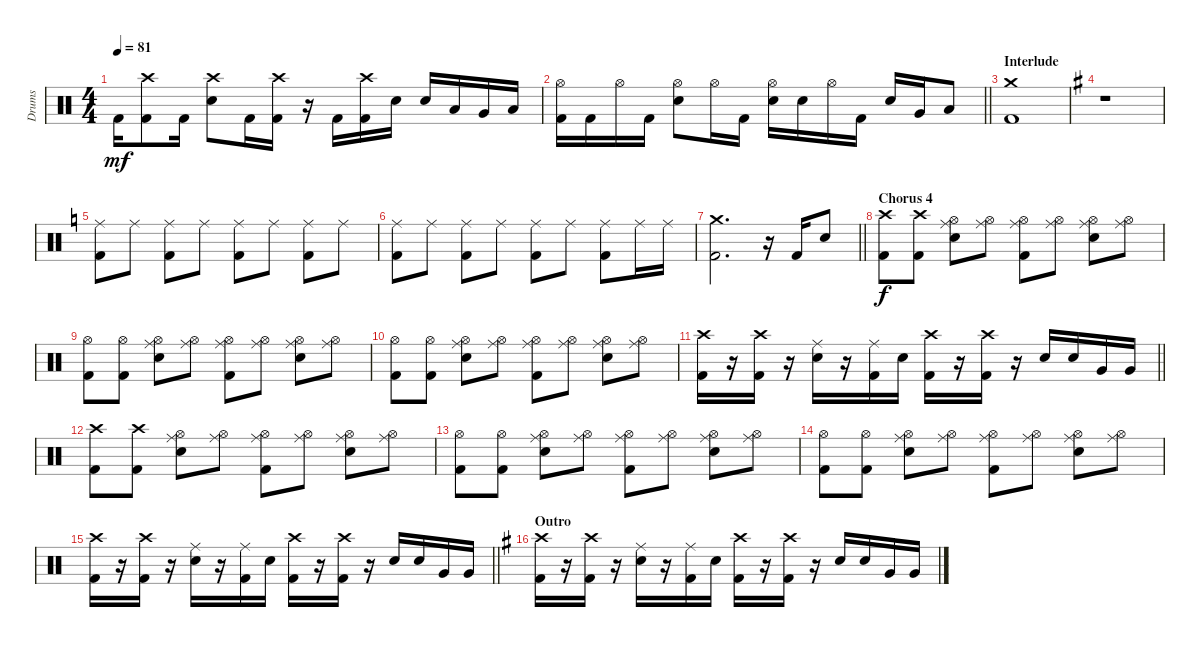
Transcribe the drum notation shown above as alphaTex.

\track ("Drums" "Drums") {instrument percussion}
\staff {score}
\articulation defaults
\ts (4 4)
\tempo 81
\clef neutral
\ks c "Kick (hit) 2".16{dy mf}
("Crash high (hit)" "Kick (hit) 2").8 "Kick (hit) 2".16 ("Crash high (hit)" "Snare (hit) 2").8 "Kick (hit) 2".16 ("Crash high (hit)" "Kick (hit) 2").16 r.16 "Kick (hit) 2".16 ("Crash high (hit)" "Kick (hit) 2").16 "Snare (hit) 2".16 "Snare (hit) 2".16 "Low Tom (hit)".16 "Very Low Tom (hit)".16 "Low Floor Tom (hit)".16 |
\barLineRight lightlight
("Hi-Hat (open)" "Kick (hit) 2").16 "Kick (hit) 2".16 "Hi-Hat (open)".16 "Kick (hit) 2".16 ("Hi-Hat (open)" "Snare (hit) 2").8 "Hi-Hat (open)".16 "Kick (hit) 2".16 ("Hi-Hat (open)" "Snare (hit) 2").16 "Snare (hit) 2".16 "Hi-Hat (open)".16 "Kick (hit) 2".16 "Snare (hit) 2".16 "Very Low Tom (hit)".16 "Low Floor Tom (hit)".8 |
\section ("" "Interlude")
("Crash medium (hit)" "Kick (hit) 2").1 |
\ks g
r.1 |
\ks c
("Ride (middle)" "Kick (hit) 2").8{volume 4} "Ride (middle)".8 ("Ride (middle)" "Kick (hit) 2").8 "Ride (middle)".8 ("Ride (middle)" "Kick (hit) 2").8 "Ride (middle)".8 ("Ride (middle)" "Kick (hit) 2").8 "Ride (middle)".8 |
("Ride (middle)" "Kick (hit) 2").8 "Ride (middle)".8 ("Ride (middle)" "Kick (hit) 2").8 "Ride (middle)".8 ("Ride (middle)" "Kick (hit) 2").8 "Ride (middle)".8 ("Ride (middle)" "Kick (hit) 2").8 "Ride (middle)".16 "Ride (middle)".16 |
\barLineRight lightlight
("Crash medium (hit)" "Kick (hit) 2").2{d} r.16{volume 9} "Kick (hit) 2".16 "Snare (hit) 2".8 |
\section ("" "Chorus 4")
("Crash high (hit)" "Kick (hit) 2").8{dy f} ("Crash high (hit)" "Kick (hit) 2").8 ("Ride (middle)" "Snare (hit) 2" "Hi-Hat (open)").8 ("Ride (middle)" "Hi-Hat (open)").8 ("Ride (middle)" "Kick (hit) 2" "Hi-Hat (open)").8 ("Ride (middle)" "Hi-Hat (open)").8 ("Ride (middle)" "Snare (hit) 2" "Hi-Hat (open)").8 ("Ride (middle)" "Hi-Hat (open)").8 |
("Kick (hit) 2" "Hi-Hat (open)").8 ("Kick (hit) 2" "Hi-Hat (open)").8 ("Ride (middle)" "Snare (hit) 2" "Hi-Hat (open)").8 ("Ride (middle)" "Hi-Hat (open)").8 ("Ride (middle)" "Kick (hit) 2" "Hi-Hat (open)").8 ("Ride (middle)" "Hi-Hat (open)").8 ("Ride (middle)" "Snare (hit) 2" "Hi-Hat (open)").8 ("Ride (middle)" "Hi-Hat (open)").8 |
("Kick (hit) 2" "Hi-Hat (open)").8 ("Kick (hit) 2" "Hi-Hat (open)").8 ("Ride (middle)" "Snare (hit) 2" "Hi-Hat (open)").8 ("Ride (middle)" "Hi-Hat (open)").8 ("Ride (middle)" "Kick (hit) 2" "Hi-Hat (open)").8 ("Ride (middle)" "Hi-Hat (open)").8 ("Ride (middle)" "Snare (hit) 2" "Hi-Hat (open)").8 ("Ride (middle)" "Hi-Hat (open)").8 |
\barLineRight lightlight
("Crash high (hit)" "Kick (hit) 2").16 r.16 ("Crash high (hit)" "Kick (hit) 2").16 r.16 ("Ride (middle)" "Snare (hit) 2").16 r.16 ("Ride (middle)" "Kick (hit) 2").16 "Snare (hit) 2".16 ("Crash high (hit)" "Kick (hit) 2").16 r.16 ("Crash high (hit)" "Kick (hit) 2").16 r.16 "Snare (hit) 2".16 "Snare (hit) 2".16 "Very Low Tom (hit)".16 "Very Low Tom (hit)".16 |
("Crash high (hit)" "Kick (hit) 2").8 ("Crash high (hit)" "Kick (hit) 2").8 ("Ride (middle)" "Snare (hit) 2" "Hi-Hat (open)").8 ("Ride (middle)" "Hi-Hat (open)").8 ("Ride (middle)" "Kick (hit) 2" "Hi-Hat (open)").8 ("Ride (middle)" "Hi-Hat (open)").8 ("Ride (middle)" "Snare (hit) 2" "Hi-Hat (open)").8 ("Ride (middle)" "Hi-Hat (open)").8 |
("Kick (hit) 2" "Hi-Hat (open)").8 ("Kick (hit) 2" "Hi-Hat (open)").8 ("Ride (middle)" "Snare (hit) 2" "Hi-Hat (open)").8 ("Ride (middle)" "Hi-Hat (open)").8 ("Ride (middle)" "Kick (hit) 2" "Hi-Hat (open)").8 ("Ride (middle)" "Hi-Hat (open)").8 ("Ride (middle)" "Snare (hit) 2" "Hi-Hat (open)").8 ("Ride (middle)" "Hi-Hat (open)").8 |
("Kick (hit) 2" "Hi-Hat (open)").8 ("Kick (hit) 2" "Hi-Hat (open)").8 ("Ride (middle)" "Snare (hit) 2" "Hi-Hat (open)").8 ("Ride (middle)" "Hi-Hat (open)").8 ("Ride (middle)" "Kick (hit) 2" "Hi-Hat (open)").8 ("Ride (middle)" "Hi-Hat (open)").8 ("Ride (middle)" "Snare (hit) 2" "Hi-Hat (open)").8 ("Ride (middle)" "Hi-Hat (open)").8 |
\barLineRight lightlight
("Crash high (hit)" "Kick (hit) 2").16 r.16 ("Crash high (hit)" "Kick (hit) 2").16 r.16 ("Ride (middle)" "Snare (hit) 2").16 r.16 ("Ride (middle)" "Kick (hit) 2").16 "Snare (hit) 2".16 ("Crash high (hit)" "Kick (hit) 2").16 r.16 ("Crash high (hit)" "Kick (hit) 2").16 r.16 "Snare (hit) 2".16 "Snare (hit) 2".16 "Very Low Tom (hit)".16 "Very Low Tom (hit)".16 |
\section ("" "Outro")
\ks g
("Crash high (hit)" "Kick (hit) 2").16 r.16 ("Crash high (hit)" "Kick (hit) 2").16 r.16 ("Ride (middle)" "Snare (hit) 2").16 r.16 ("Ride (middle)" "Kick (hit) 2").16 "Snare (hit) 2".16 ("Crash high (hit)" "Kick (hit) 2").16 r.16 ("Crash high (hit)" "Kick (hit) 2").16 r.16 "Snare (hit) 2".16 "Snare (hit) 2".16 "Very Low Tom (hit)".16 "Very Low Tom (hit)".16
